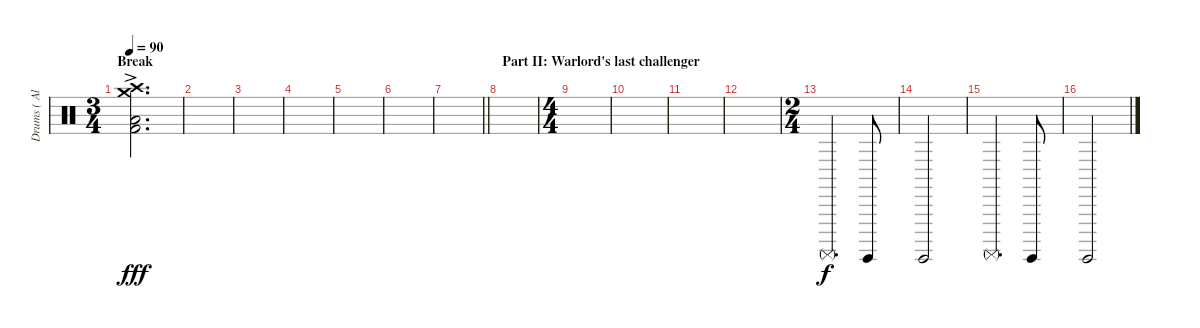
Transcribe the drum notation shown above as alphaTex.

\track ("Drums ( Alex Holzwarth)" "Drums ( Al") {instrument percussion}
\staff {score}
\articulation defaults
\ts (3 4)
\section ("" "Break")
\tempo 90
\clef neutral
\ks c
("Crash high (hit)"{ac} "Crash medium (hit)" "Low Floor Tom (hit)" "Kick (hit) 2"{ac}).2{d dy fff} |
|
|
|
|
|
\barLineRight lightlight
|
\section ("" "Part II: Warlord's last challenger")
|
\ts (4 4)
|
|
|
|
\ts (2 4)
"Surdo (mute)".4{d dy f} "Surdo (hit)".8 |
"Surdo (hit)".2 |
"Surdo (mute)".4{d} "Surdo (hit)".8 |
"Surdo (hit)".2
